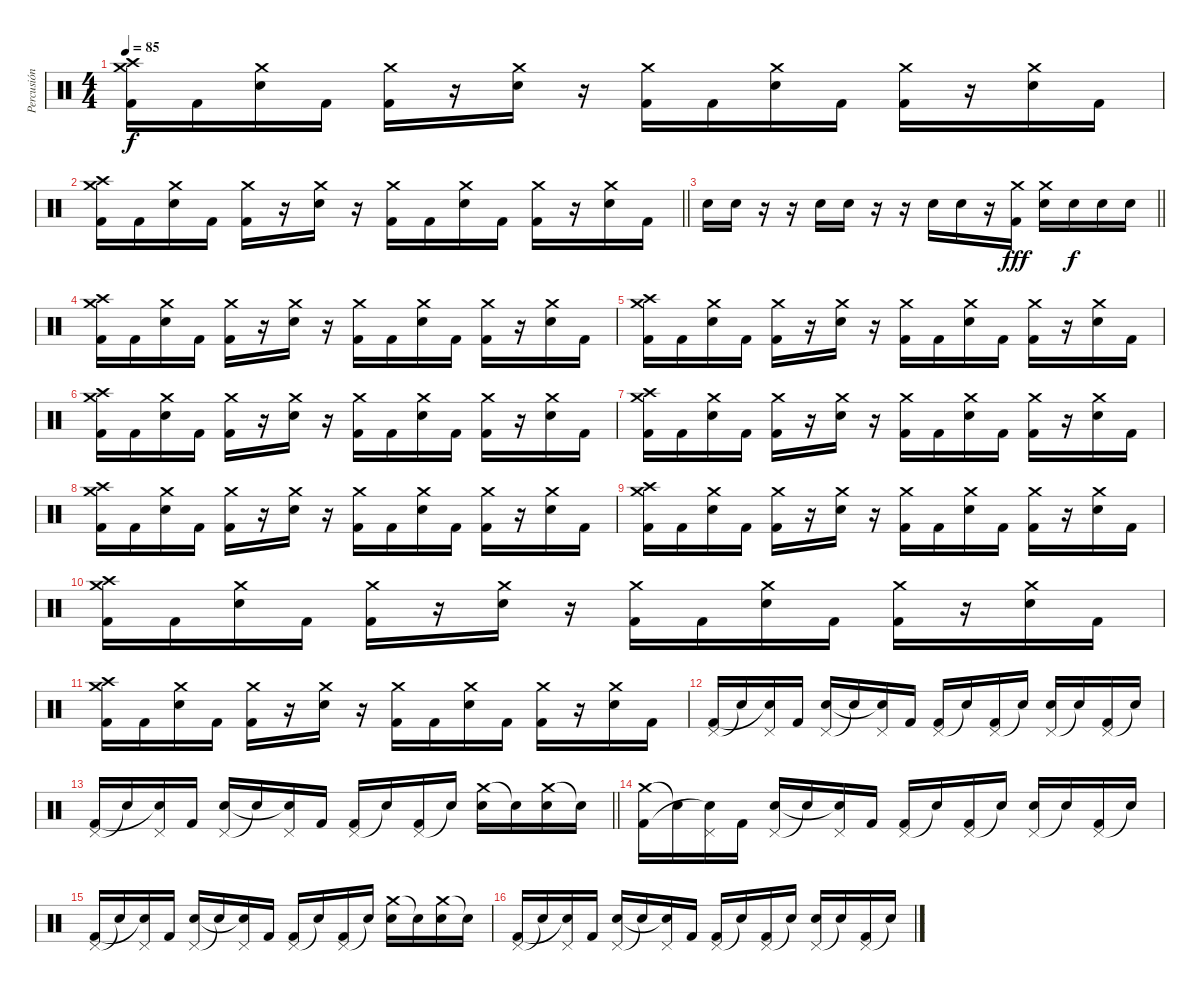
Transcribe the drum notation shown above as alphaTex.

\track ("Percusión" "Percusión") {instrument percussion}
\staff {score}
\articulation defaults
\ts (4 4)
\tempo 85
\clef neutral
\ks c
("Crash high (hit)" "Crash medium (hit)" "Kick (hit) 2").16{dy f} "Kick (hit) 2".16 ("Crash medium (hit)" "Electric Snare (hit)").16 "Kick (hit) 2".16 ("Crash medium (hit)" "Kick (hit) 2").16 r.16 ("Crash medium (hit)" "Electric Snare (hit)").16 r.16 ("Crash medium (hit)" "Kick (hit) 2").16 "Kick (hit) 2".16 ("Crash medium (hit)" "Electric Snare (hit)").16 "Kick (hit) 2".16 ("Crash medium (hit)" "Kick (hit) 2").16 r.16 ("Crash medium (hit)" "Electric Snare (hit)").16 "Kick (hit) 2".16 |
\barLineRight lightlight
("Crash high (hit)" "Crash medium (hit)" "Kick (hit) 2").16 "Kick (hit) 2".16 ("Crash medium (hit)" "Electric Snare (hit)").16 "Kick (hit) 2".16 ("Crash medium (hit)" "Kick (hit) 2").16 r.16 ("Crash medium (hit)" "Electric Snare (hit)").16 r.16 ("Crash medium (hit)" "Kick (hit) 2").16 "Kick (hit) 2".16 ("Crash medium (hit)" "Electric Snare (hit)").16 "Kick (hit) 2".16 ("Crash medium (hit)" "Kick (hit) 2").16 r.16 ("Crash medium (hit)" "Electric Snare (hit)").16 "Kick (hit) 2".16 |
\barLineRight lightlight "Electric Snare (hit)".16 "Electric Snare (hit)".16
r.16 r.16 "Electric Snare (hit)".16 "Electric Snare (hit)".16 r.16 r.16 "Electric Snare (hit)".16 "Electric Snare (hit)".16 r.16 ("Crash medium (hit)" "Kick (hit) 2").16{dy fff} ("Crash medium (hit)" "Electric Snare (hit)").16 "Electric Snare (hit)".16{dy f} "Electric Snare (hit)".16 "Electric Snare (hit)".16 |
("Crash high (hit)" "Crash medium (hit)" "Kick (hit) 2").16 "Kick (hit) 2".16 ("Crash medium (hit)" "Electric Snare (hit)").16 "Kick (hit) 2".16 ("Crash medium (hit)" "Kick (hit) 2").16 r.16 ("Crash medium (hit)" "Electric Snare (hit)").16 r.16 ("Crash medium (hit)" "Kick (hit) 2").16 "Kick (hit) 2".16 ("Crash medium (hit)" "Electric Snare (hit)").16 "Kick (hit) 2".16 ("Crash medium (hit)" "Kick (hit) 2").16 r.16 ("Crash medium (hit)" "Electric Snare (hit)").16 "Kick (hit) 2".16 |
("Crash high (hit)" "Crash medium (hit)" "Kick (hit) 2").16 "Kick (hit) 2".16 ("Crash medium (hit)" "Electric Snare (hit)").16 "Kick (hit) 2".16 ("Crash medium (hit)" "Kick (hit) 2").16 r.16 ("Crash medium (hit)" "Electric Snare (hit)").16 r.16 ("Crash medium (hit)" "Kick (hit) 2").16 "Kick (hit) 2".16 ("Crash medium (hit)" "Electric Snare (hit)").16 "Kick (hit) 2".16 ("Crash medium (hit)" "Kick (hit) 2").16 r.16 ("Crash medium (hit)" "Electric Snare (hit)").16 "Kick (hit) 2".16 |
("Crash high (hit)" "Crash medium (hit)" "Kick (hit) 2").16 "Kick (hit) 2".16 ("Crash medium (hit)" "Electric Snare (hit)").16 "Kick (hit) 2".16 ("Crash medium (hit)" "Kick (hit) 2").16 r.16 ("Crash medium (hit)" "Electric Snare (hit)").16 r.16 ("Crash medium (hit)" "Kick (hit) 2").16 "Kick (hit) 2".16 ("Crash medium (hit)" "Electric Snare (hit)").16 "Kick (hit) 2".16 ("Crash medium (hit)" "Kick (hit) 2").16 r.16 ("Crash medium (hit)" "Electric Snare (hit)").16 "Kick (hit) 2".16 |
("Crash high (hit)" "Crash medium (hit)" "Kick (hit) 2").16 "Kick (hit) 2".16 ("Crash medium (hit)" "Electric Snare (hit)").16 "Kick (hit) 2".16 ("Crash medium (hit)" "Kick (hit) 2").16 r.16 ("Crash medium (hit)" "Electric Snare (hit)").16 r.16 ("Crash medium (hit)" "Kick (hit) 2").16 "Kick (hit) 2".16 ("Crash medium (hit)" "Electric Snare (hit)").16 "Kick (hit) 2".16 ("Crash medium (hit)" "Kick (hit) 2").16 r.16 ("Crash medium (hit)" "Electric Snare (hit)").16 "Kick (hit) 2".16 |
("Crash high (hit)" "Crash medium (hit)" "Kick (hit) 2").16 "Kick (hit) 2".16 ("Crash medium (hit)" "Electric Snare (hit)").16 "Kick (hit) 2".16 ("Crash medium (hit)" "Kick (hit) 2").16 r.16 ("Crash medium (hit)" "Electric Snare (hit)").16 r.16 ("Crash medium (hit)" "Kick (hit) 2").16 "Kick (hit) 2".16 ("Crash medium (hit)" "Electric Snare (hit)").16 "Kick (hit) 2".16 ("Crash medium (hit)" "Kick (hit) 2").16 r.16 ("Crash medium (hit)" "Electric Snare (hit)").16 "Kick (hit) 2".16 |
("Crash high (hit)" "Crash medium (hit)" "Kick (hit) 2").16 "Kick (hit) 2".16 ("Crash medium (hit)" "Electric Snare (hit)").16 "Kick (hit) 2".16 ("Crash medium (hit)" "Kick (hit) 2").16 r.16 ("Crash medium (hit)" "Electric Snare (hit)").16 r.16 ("Crash medium (hit)" "Kick (hit) 2").16 "Kick (hit) 2".16 ("Crash medium (hit)" "Electric Snare (hit)").16 "Kick (hit) 2".16 ("Crash medium (hit)" "Kick (hit) 2").16 r.16 ("Crash medium (hit)" "Electric Snare (hit)").16 "Kick (hit) 2".16 |
("Crash high (hit)" "Crash medium (hit)" "Kick (hit) 2").16 "Kick (hit) 2".16 ("Crash medium (hit)" "Electric Snare (hit)").16 "Kick (hit) 2".16 ("Crash medium (hit)" "Kick (hit) 2").16 r.16 ("Crash medium (hit)" "Electric Snare (hit)").16 r.16 ("Crash medium (hit)" "Kick (hit) 2").16 "Kick (hit) 2".16 ("Crash medium (hit)" "Electric Snare (hit)").16 "Kick (hit) 2".16 ("Crash medium (hit)" "Kick (hit) 2").16 r.16 ("Crash medium (hit)" "Electric Snare (hit)").16 "Kick (hit) 2".16 |
("Crash high (hit)" "Crash medium (hit)" "Kick (hit) 2").16 "Kick (hit) 2".16 ("Crash medium (hit)" "Electric Snare (hit)").16 "Kick (hit) 2".16 ("Crash medium (hit)" "Kick (hit) 2").16 r.16 ("Crash medium (hit)" "Electric Snare (hit)").16 r.16 ("Crash medium (hit)" "Kick (hit) 2").16 "Kick (hit) 2".16 ("Crash medium (hit)" "Electric Snare (hit)").16 "Kick (hit) 2".16 ("Crash medium (hit)" "Kick (hit) 2").16 r.16 ("Crash medium (hit)" "Electric Snare (hit)").16 "Kick (hit) 2".16 |
("Pedal Hi-Hat (hit)" "Kick (hit) 2").16 "Snare (hit)"{t}.16 ("Pedal Hi-Hat (hit)" "Snare (hit)"{t}).16 "Kick (hit) 2".16 ("Pedal Hi-Hat (hit)" "Electric Snare (hit)").16 "Snare (hit)"{t}.16 ("Pedal Hi-Hat (hit)" "Snare (hit)"{t}).16 "Kick (hit) 2".16 ("Pedal Hi-Hat (hit)" "Kick (hit) 2").16 "Snare (hit)"{t}.16 ("Pedal Hi-Hat (hit)" "Kick (hit) 2").16 "Snare (hit)"{t}.16 ("Pedal Hi-Hat (hit)" "Electric Snare (hit)").16 "Snare (hit)"{t}.16 ("Pedal Hi-Hat (hit)" "Kick (hit) 2").16 "Snare (hit)"{t}.16 |
\barLineRight lightlight
("Pedal Hi-Hat (hit)" "Kick (hit) 2").16 "Snare (hit)"{t}.16 ("Pedal Hi-Hat (hit)" "Snare (hit)"{t}).16 "Kick (hit) 2".16 ("Pedal Hi-Hat (hit)" "Electric Snare (hit)").16 "Snare (hit)"{t}.16 ("Pedal Hi-Hat (hit)" "Snare (hit)"{t}).16 "Kick (hit) 2".16 ("Pedal Hi-Hat (hit)" "Kick (hit) 2").16 "Snare (hit)"{t}.16 ("Pedal Hi-Hat (hit)" "Kick (hit) 2").16 "Snare (hit)"{t}.16 ("Crash medium (hit)" "Electric Snare (hit)").16 "Snare (hit)"{t}.16 ("Crash medium (hit)" "Electric Snare (hit)").16 "Snare (hit)"{t}.16 |
("Crash medium (hit)" "Kick (hit) 2").16 "Snare (hit)"{t}.16 ("Pedal Hi-Hat (hit)" "Snare (hit)"{t}).16 "Kick (hit) 2".16 ("Pedal Hi-Hat (hit)" "Electric Snare (hit)").16 "Snare (hit)"{t}.16 ("Pedal Hi-Hat (hit)" "Snare (hit)"{t}).16 "Kick (hit) 2".16 ("Pedal Hi-Hat (hit)" "Kick (hit) 2").16 "Snare (hit)"{t}.16 ("Pedal Hi-Hat (hit)" "Kick (hit) 2").16 "Snare (hit)"{t}.16 ("Pedal Hi-Hat (hit)" "Electric Snare (hit)").16 "Snare (hit)"{t}.16 ("Pedal Hi-Hat (hit)" "Kick (hit) 2").16 "Snare (hit)"{t}.16 |
("Pedal Hi-Hat (hit)" "Kick (hit) 2").16 "Snare (hit)"{t}.16 ("Pedal Hi-Hat (hit)" "Snare (hit)"{t}).16 "Kick (hit) 2".16 ("Pedal Hi-Hat (hit)" "Electric Snare (hit)").16 "Snare (hit)"{t}.16 ("Pedal Hi-Hat (hit)" "Snare (hit)"{t}).16 "Kick (hit) 2".16 ("Pedal Hi-Hat (hit)" "Kick (hit) 2").16 "Snare (hit)"{t}.16 ("Pedal Hi-Hat (hit)" "Kick (hit) 2").16 "Snare (hit)"{t}.16 ("Crash medium (hit)" "Electric Snare (hit)").16 "Snare (hit)"{t}.16 ("Crash medium (hit)" "Electric Snare (hit)").16 "Snare (hit)"{t}.16 |
("Pedal Hi-Hat (hit)" "Kick (hit) 2").16 "Snare (hit)"{t}.16 ("Pedal Hi-Hat (hit)" "Snare (hit)"{t}).16 "Kick (hit) 2".16 ("Pedal Hi-Hat (hit)" "Electric Snare (hit)").16 "Snare (hit)"{t}.16 ("Pedal Hi-Hat (hit)" "Snare (hit)"{t}).16 "Kick (hit) 2".16 ("Pedal Hi-Hat (hit)" "Kick (hit) 2").16 "Snare (hit)"{t}.16 ("Pedal Hi-Hat (hit)" "Kick (hit) 2").16 "Snare (hit)"{t}.16 ("Pedal Hi-Hat (hit)" "Electric Snare (hit)").16 "Snare (hit)"{t}.16 ("Pedal Hi-Hat (hit)" "Kick (hit) 2").16 "Snare (hit)"{t}.16
